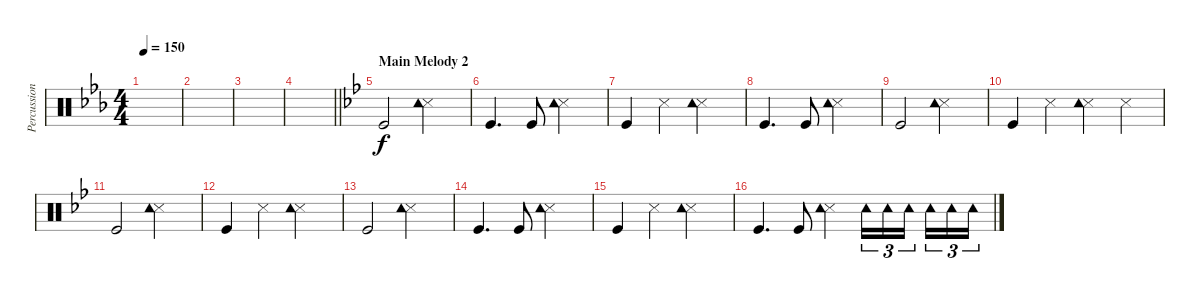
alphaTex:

\track ("Percussion" "Percussion") {instrument percussion}
\staff {score}
\articulation defaults
\ts (4 4)
\tempo 150
\clef neutral
\ks cminor
|
|
|
\barLineRight lightlight
|
\section ("" "Main Melody 2")
\ks gminor "Kick (hit)".2
("Snare (side stick) 3" "Tambourine (hit)").2 |
"Kick (hit)".4{d} "Kick (hit)".8 ("Snare (side stick) 3" "Tambourine (hit)").2 |
"Kick (hit)".4 "Snare (side stick) 3".4 ("Snare (side stick) 3" "Tambourine (hit)").2 |
"Kick (hit)".4{d} "Kick (hit)".8 ("Snare (side stick) 3" "Tambourine (hit)").2 |
"Kick (hit)".2 ("Snare (side stick) 3" "Tambourine (hit)").2 |
"Kick (hit)".4 "Snare (side stick) 3".4 ("Snare (side stick) 3" "Tambourine (hit)").4 "Snare (side stick) 3".4 |
"Kick (hit)".2 ("Snare (side stick) 3" "Tambourine (hit)").2 |
"Kick (hit)".4 "Snare (side stick) 3".4 ("Snare (side stick) 3" "Tambourine (hit)").2 |
"Kick (hit)".2 ("Snare (side stick) 3" "Tambourine (hit)").2 |
"Kick (hit)".4{d} "Kick (hit)".8 ("Snare (side stick) 3" "Tambourine (hit)").2 |
"Kick (hit)".4 "Snare (side stick) 3".4 ("Snare (side stick) 3" "Tambourine (hit)").2 |
"Kick (hit)".4{d} "Kick (hit)".8 ("Snare (side stick) 3" "Tambourine (hit)").4 "Tambourine (hit)".16{tu (3 2)} "Tambourine (hit)".16{tu (3 2)} "Tambourine (hit)".16{tu (3 2) beam splitsecondary} "Tambourine (hit)".16{tu (3 2)} "Tambourine (hit)".16{tu (3 2)} "Tambourine (hit)".16{tu (3 2)}
